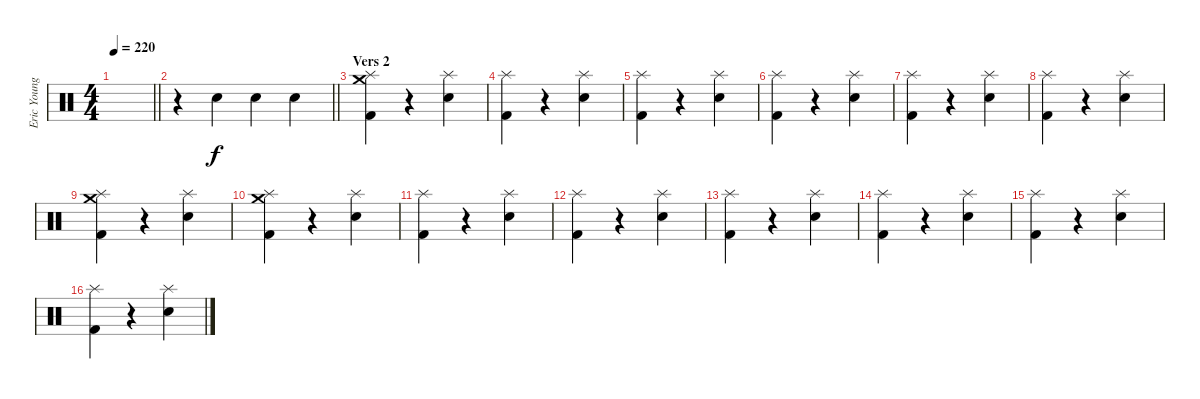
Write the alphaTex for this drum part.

\track ("Eric Young (Drums)" "Eric Young") {instrument percussion}
\staff {score}
\articulation defaults
\ts (4 4)
\tempo 220
\clef neutral
\barLineRight lightlight
\ks c
|
\barLineRight lightlight
r.4 "Snare (hit) 2".4 "Snare (hit) 2".4 "Snare (hit) 2".4 |
\section ("" "Vers 2")
("Splash (hit)" "Kick (hit) 2" "Crash medium (hit)").4 r.4 ("Splash (hit)" "Snare (hit) 2").4 |
("Splash (hit)" "Kick (hit) 2").4 r.4 ("Splash (hit)" "Snare (hit) 2").4 |
("Splash (hit)" "Kick (hit) 2").4 r.4 ("Splash (hit)" "Snare (hit) 2").4 |
("Splash (hit)" "Kick (hit) 2").4 r.4 ("Splash (hit)" "Snare (hit) 2").4 |
("Splash (hit)" "Kick (hit) 2").4 r.4 ("Splash (hit)" "Snare (hit) 2").4 |
("Splash (hit)" "Kick (hit) 2").4 r.4 ("Splash (hit)" "Snare (hit) 2").4 |
("Splash (hit)" "Kick (hit) 2" "Crash medium (hit)").4 r.4 ("Splash (hit)" "Snare (hit) 2").4 |
("Splash (hit)" "Kick (hit) 2" "Crash medium (hit)").4 r.4 ("Splash (hit)" "Snare (hit) 2").4 |
("Splash (hit)" "Kick (hit) 2").4 r.4 ("Splash (hit)" "Snare (hit) 2").4 |
("Splash (hit)" "Kick (hit) 2").4 r.4 ("Splash (hit)" "Snare (hit) 2").4 |
("Splash (hit)" "Kick (hit) 2").4 r.4 ("Splash (hit)" "Snare (hit) 2").4 |
("Splash (hit)" "Kick (hit) 2").4 r.4 ("Splash (hit)" "Snare (hit) 2").4 |
("Splash (hit)" "Kick (hit) 2").4 r.4 ("Splash (hit)" "Snare (hit) 2").4 |
("Splash (hit)" "Kick (hit) 2").4 r.4 ("Splash (hit)" "Snare (hit) 2").4
